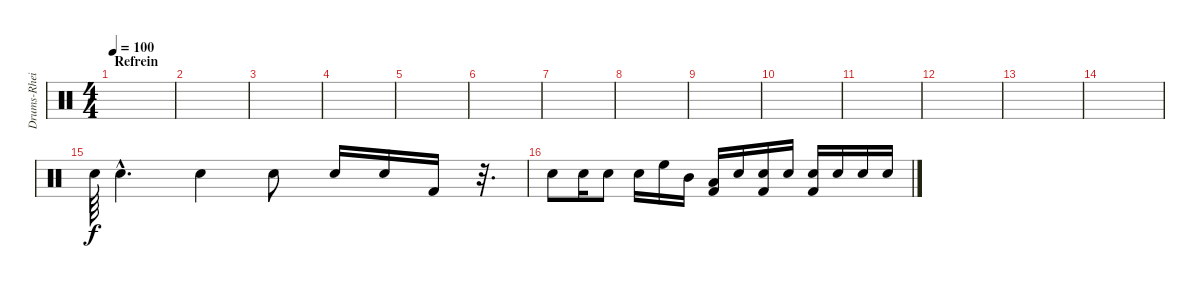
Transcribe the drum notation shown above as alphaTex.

\track ("Drums-Rhein" "Drums-Rhei") {instrument percussion}
\staff {score}
\articulation defaults
\ts (4 4)
\section ("" "Refrein")
\tempo 100
\clef neutral
\ks c
|
|
|
|
|
|
|
|
|
|
|
|
|
|
"Snare (hit) 2".64 "Snare (hit) 2"{hac}.4{d} "Snare (hit) 2".4 "Snare (hit) 2".8 "Snare (hit) 2".16 "Snare (hit) 2".16 "Kick (hit) 2".16 r.32{d} |
"Snare (hit) 2".8 "Snare (hit) 2".16 "Snare (hit) 2".8 "Snare (hit) 2".16 "High Floor Tom (hit)".16 "Mid Tom (hit)".16 ("Low Tom (hit)" "Kick (hit) 2").16 "Snare (hit) 2".16 ("Snare (hit) 2" "Kick (hit) 2").16 "Snare (hit) 2".16 ("Snare (hit) 2" "Kick (hit) 2").16 "Snare (hit) 2".16 "Snare (hit) 2".16 "Snare (hit) 2".16
